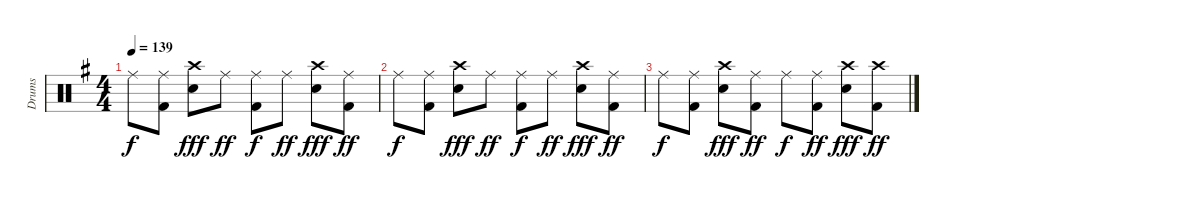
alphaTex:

\track ("Drums" "Drums") {instrument percussion}
\staff {score}
\articulation defaults
\ts (4 4)
\tempo 139
\clef neutral
\ks g "Ride (middle)".8{dy f volume 12}
("Ride (middle)" "Kick (hit) 2").8{volume 12} ("Crash high (hit)" "Snare (hit) 2").8{dy fff volume 12} "Ride (middle)".8{dy ff volume 12} ("Ride (middle)" "Kick (hit) 2").8{dy f volume 12} "Ride (middle)".8{dy ff volume 11} ("Crash high (hit)" "Snare (hit) 2").8{dy fff volume 11} ("Ride (middle)" "Kick (hit) 2").8{dy ff volume 11} |
"Ride (middle)".8{dy f volume 10} ("Ride (middle)" "Kick (hit) 2").8{volume 10} ("Crash high (hit)" "Snare (hit) 2").8{dy fff volume 10} "Ride (middle)".8{dy ff volume 10} ("Ride (middle)" "Kick (hit) 2").8{dy f volume 9} "Ride (middle)".8{dy ff volume 9} ("Crash high (hit)" "Snare (hit) 2").8{dy fff volume 9} ("Ride (middle)" "Kick (hit) 2").8{dy ff volume 8} |
"Ride (middle)".8{dy f volume 8} ("Ride (middle)" "Kick (hit) 2").8{volume 7} ("Crash high (hit)" "Snare (hit) 2").8{dy fff volume 7} ("Ride (middle)" "Kick (hit) 2").8{dy ff volume 7} "Ride (middle)".8{dy f volume 6} ("Ride (middle)" "Kick (hit) 2").8{dy ff volume 6} ("Crash high (hit)" "Snare (hit) 2").8{dy fff volume 5} ("Crash high (hit)" "Kick (hit) 2").8{dy ff volume 5}
